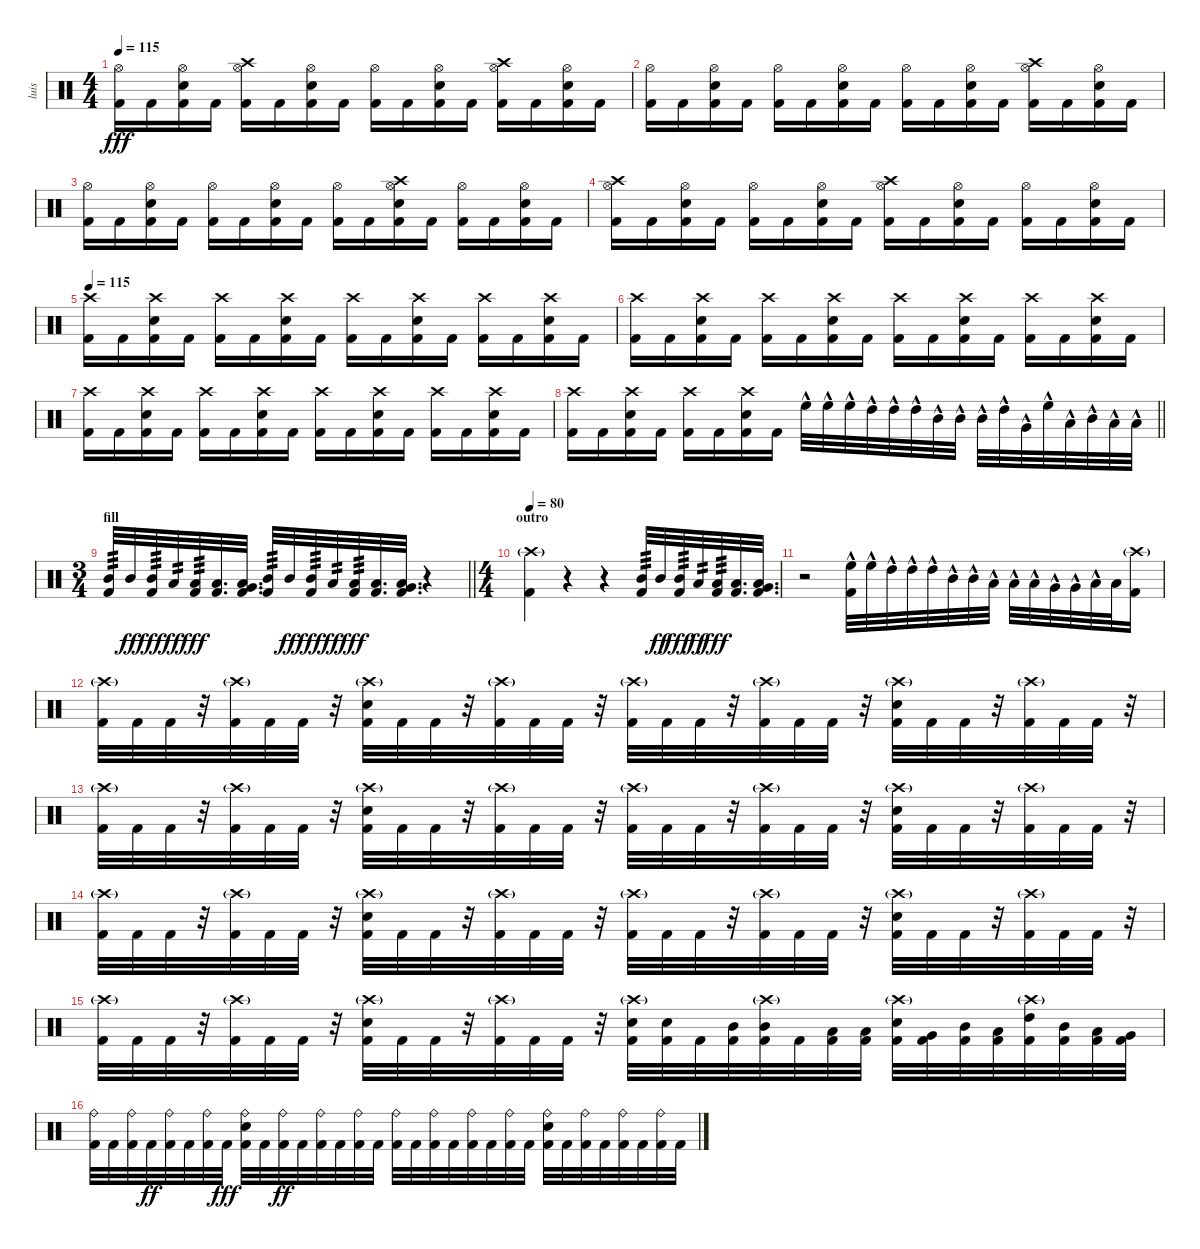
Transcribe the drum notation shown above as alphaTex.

\track ("luis" "luis") {instrument percussion}
\staff {score}
\articulation defaults
\ts (4 4)
\tempo 115
\clef neutral
\ks c
("Hi-Hat (open)" "Kick (hit) 2").16{dy fff} "Kick (hit) 2".16 ("Hi-Hat (open)" "Electric Snare (hit)" "Kick (hit) 2").16 "Kick (hit) 2".16 ("Crash high (hit)" "Hi-Hat (open)" "Kick (hit) 2").16 "Kick (hit) 2".16 ("Hi-Hat (open)" "Electric Snare (hit)" "Kick (hit) 2").16 "Kick (hit) 2".16 ("Hi-Hat (open)" "Kick (hit) 2").16 "Kick (hit) 2".16 ("Hi-Hat (open)" "Electric Snare (hit)" "Kick (hit) 2").16 "Kick (hit) 2".16 ("Crash high (hit)" "Hi-Hat (open)" "Kick (hit) 2").16 "Kick (hit) 2".16 ("Hi-Hat (open)" "Electric Snare (hit)" "Kick (hit) 2").16 "Kick (hit) 2".16 |
("Hi-Hat (open)" "Kick (hit) 2").16 "Kick (hit) 2".16 ("Hi-Hat (open)" "Electric Snare (hit)" "Kick (hit) 2").16 "Kick (hit) 2".16 ("Hi-Hat (open)" "Kick (hit) 2").16 "Kick (hit) 2".16 ("Hi-Hat (open)" "Electric Snare (hit)" "Kick (hit) 2").16 "Kick (hit) 2".16 ("Hi-Hat (open)" "Kick (hit) 2").16 "Kick (hit) 2".16 ("Hi-Hat (open)" "Electric Snare (hit)" "Kick (hit) 2").16 "Kick (hit) 2".16 ("Crash high (hit)" "Hi-Hat (open)" "Kick (hit) 2").16 "Kick (hit) 2".16 ("Hi-Hat (open)" "Electric Snare (hit)" "Kick (hit) 2").16 "Kick (hit) 2".16 |
("Hi-Hat (open)" "Kick (hit) 2").16 "Kick (hit) 2".16 ("Hi-Hat (open)" "Electric Snare (hit)" "Kick (hit) 2").16 "Kick (hit) 2".16 ("Hi-Hat (open)" "Kick (hit) 2").16 "Kick (hit) 2".16 ("Hi-Hat (open)" "Electric Snare (hit)" "Kick (hit) 2").16 "Kick (hit) 2".16 ("Hi-Hat (open)" "Kick (hit) 2").16 "Kick (hit) 2".16 ("Crash high (hit)" "Hi-Hat (open)" "Electric Snare (hit)" "Kick (hit) 2").16 "Kick (hit) 2".16 ("Hi-Hat (open)" "Kick (hit) 2").16 "Kick (hit) 2".16 ("Hi-Hat (open)" "Electric Snare (hit)" "Kick (hit) 2").16 "Kick (hit) 2".16 |
("Crash high (hit)" "Hi-Hat (open)" "Kick (hit) 2").16 "Kick (hit) 2".16 ("Hi-Hat (open)" "Electric Snare (hit)" "Kick (hit) 2").16 "Kick (hit) 2".16 ("Hi-Hat (open)" "Kick (hit) 2").16 "Kick (hit) 2".16 ("Hi-Hat (open)" "Electric Snare (hit)" "Kick (hit) 2").16 "Kick (hit) 2".16 ("Crash high (hit)" "Hi-Hat (open)" "Kick (hit) 2").16 "Kick (hit) 2".16 ("Hi-Hat (open)" "Electric Snare (hit)" "Kick (hit) 2").16 "Kick (hit) 2".16 ("Hi-Hat (open)" "Kick (hit) 2").16 "Kick (hit) 2".16 ("Hi-Hat (open)" "Electric Snare (hit)" "Kick (hit) 2").16 "Kick (hit) 2".16 |
\tempo 115
("Crash high (hit)" "Kick (hit) 2").16 "Kick (hit) 2".16 ("Crash high (hit)" "Electric Snare (hit)" "Kick (hit) 2").16 "Kick (hit) 2".16 ("Crash high (hit)" "Kick (hit) 2").16 "Kick (hit) 2".16 ("Crash high (hit)" "Electric Snare (hit)" "Kick (hit) 2").16 "Kick (hit) 2".16 ("Crash high (hit)" "Kick (hit) 2").16 "Kick (hit) 2".16 ("Crash high (hit)" "Electric Snare (hit)" "Kick (hit) 2").16 "Kick (hit) 2".16 ("Crash high (hit)" "Kick (hit) 2").16 "Kick (hit) 2".16 ("Crash high (hit)" "Electric Snare (hit)" "Kick (hit) 2").16 "Kick (hit) 2".16 |
("Crash high (hit)" "Kick (hit) 2").16 "Kick (hit) 2".16 ("Crash high (hit)" "Electric Snare (hit)" "Kick (hit) 2").16 "Kick (hit) 2".16 ("Crash high (hit)" "Kick (hit) 2").16 "Kick (hit) 2".16 ("Crash high (hit)" "Electric Snare (hit)" "Kick (hit) 2").16 "Kick (hit) 2".16 ("Crash high (hit)" "Kick (hit) 2").16 "Kick (hit) 2".16 ("Crash high (hit)" "Electric Snare (hit)" "Kick (hit) 2").16 "Kick (hit) 2".16 ("Crash high (hit)" "Kick (hit) 2").16 "Kick (hit) 2".16 ("Crash high (hit)" "Electric Snare (hit)" "Kick (hit) 2").16 "Kick (hit) 2".16 |
("Crash high (hit)" "Kick (hit) 2").16 "Kick (hit) 2".16 ("Crash high (hit)" "Electric Snare (hit)" "Kick (hit) 2").16 "Kick (hit) 2".16 ("Crash high (hit)" "Kick (hit) 2").16 "Kick (hit) 2".16 ("Crash high (hit)" "Electric Snare (hit)" "Kick (hit) 2").16 "Kick (hit) 2".16 ("Crash high (hit)" "Kick (hit) 2").16 "Kick (hit) 2".16 ("Crash high (hit)" "Electric Snare (hit)" "Kick (hit) 2").16 "Kick (hit) 2".16 ("Crash high (hit)" "Kick (hit) 2").16 "Kick (hit) 2".16 ("Crash high (hit)" "Electric Snare (hit)" "Kick (hit) 2").16 "Kick (hit) 2".16 |
\barLineRight lightlight
("Crash high (hit)" "Kick (hit) 2").16 "Kick (hit) 2".16 ("Crash high (hit)" "Electric Snare (hit)" "Kick (hit) 2").16 "Kick (hit) 2".16 ("Crash high (hit)" "Kick (hit) 2").16 "Kick (hit) 2".16 ("Crash high (hit)" "Electric Snare (hit)" "Kick (hit) 2").16 "Kick (hit) 2".16 "High Floor Tom (hit)"{hac}.32 "High Floor Tom (hit)"{hac}.32 "High Floor Tom (hit)"{hac}.32 "High Tom (hit)"{hac}.32 "High Tom (hit)"{hac}.32 "High Tom (hit)"{hac}.32 "Mid Tom (hit)"{hac}.32 "Mid Tom (hit)"{hac}.32 "Mid Tom (hit)"{hac}.32 "High Tom (hit)"{hac}.32 "Very Low Tom (hit)"{hac}.32 "High Floor Tom (hit)"{hac}.32 "Low Tom (hit)"{hac}.32 "Mid Tom (hit)"{hac}.32 "Low Floor Tom (hit)"{hac}.32 "Low Floor Tom (hit)"{hac}.32 |
\ts (3 4)
\section ("" "fill")
\barLineRight lightlight
("Mid Tom (hit)" "Kick (hit) 2").32{tp 3} "Mid Tom (hit)".32{dy ff} ("Mid Tom (hit)" "Kick (hit) 2").32{tp 3 dy fff} "Low Tom (hit)".32{tp 2 dy ff} ("Low Tom (hit)" "Kick (hit) 2").32{tp 3 dy fff} ("Low Floor Tom (hit)" "Kick (hit) 2").32{d} ("Low Floor Tom (hit)" "Very Low Tom (hit)" "Kick (hit) 2").32{d} ("Mid Tom (hit)" "Kick (hit) 2").32{tp 3} "Mid Tom (hit)".32{dy ff} ("Mid Tom (hit)" "Kick (hit) 2").32{tp 3 dy fff} "Low Tom (hit)".32{tp 2 dy ff} ("Low Tom (hit)" "Kick (hit) 2").32{tp 3 dy fff} ("Low Floor Tom (hit)" "Kick (hit) 2").32{d} ("Low Floor Tom (hit)" "Very Low Tom (hit)" "Kick (hit) 2").32{d} r.4 |
\ts (4 4)
\section ("" "outro")
\tempo 80
("Crash high (hit)"{g} "Kick (hit) 2").4 r.4 r.4 ("Mid Tom (hit)" "Kick (hit) 2").32{tp 3} "Mid Tom (hit)".32{dy ff} ("Mid Tom (hit)" "Kick (hit) 2").32{tp 3 dy fff} "Low Tom (hit)".32{tp 2 dy ff} ("Low Tom (hit)" "Kick (hit) 2").32{tp 3 dy fff} ("Low Floor Tom (hit)" "Kick (hit) 2").32{d} ("Low Floor Tom (hit)" "Very Low Tom (hit)" "Kick (hit) 2").32{d} |
r.2 ("High Floor Tom (hit)"{hac} "Kick (hit) 2").32 "High Floor Tom (hit)"{hac}.32 "High Tom (hit)"{hac}.32 "High Tom (hit)"{hac}.32 "High Tom (hit)"{hac}.32 "Mid Tom (hit)"{hac}.32 "Mid Tom (hit)"{hac}.32 "Low Tom (hit)"{hac}.32 "Low Tom (hit)"{hac}.32 "Low Tom (hit)"{hac}.32 "Very Low Tom (hit)"{hac}.32 "Very Low Tom (hit)"{hac}.32 "Low Floor Tom (hit)"{hac}.32 "Low Floor Tom (hit)".32 ("Crash high (hit)"{g} "Kick (hit) 2").16 |
("Crash high (hit)"{g} "Kick (hit) 2").32 "Kick (hit) 2".32 "Kick (hit) 2".32 r.32 ("Crash high (hit)"{g} "Kick (hit) 2").32 "Kick (hit) 2".32 "Kick (hit) 2".32 r.32 ("Crash high (hit)"{g} "Electric Snare (hit)" "Kick (hit) 2").32 "Kick (hit) 2".32 "Kick (hit) 2".32 r.32 ("Crash high (hit)"{g} "Kick (hit) 2").32 "Kick (hit) 2".32 "Kick (hit) 2".32 r.32 ("Crash high (hit)"{g} "Kick (hit) 2").32 "Kick (hit) 2".32 "Kick (hit) 2".32 r.32 ("Crash high (hit)"{g} "Kick (hit) 2").32 "Kick (hit) 2".32 "Kick (hit) 2".32 r.32 ("Crash high (hit)"{g} "Electric Snare (hit)" "Kick (hit) 2").32 "Kick (hit) 2".32 "Kick (hit) 2".32 r.32 ("Crash high (hit)"{g} "Kick (hit) 2").32 "Kick (hit) 2".32 "Kick (hit) 2".32 r.32 |
("Crash high (hit)"{g} "Kick (hit) 2").32 "Kick (hit) 2".32 "Kick (hit) 2".32 r.32 ("Crash high (hit)"{g} "Kick (hit) 2").32 "Kick (hit) 2".32 "Kick (hit) 2".32 r.32 ("Crash high (hit)"{g} "Electric Snare (hit)" "Kick (hit) 2").32 "Kick (hit) 2".32 "Kick (hit) 2".32 r.32 ("Crash high (hit)"{g} "Kick (hit) 2").32 "Kick (hit) 2".32 "Kick (hit) 2".32 r.32 ("Crash high (hit)"{g} "Kick (hit) 2").32 "Kick (hit) 2".32 "Kick (hit) 2".32 r.32 ("Crash high (hit)"{g} "Kick (hit) 2").32 "Kick (hit) 2".32 "Kick (hit) 2".32 r.32 ("Crash high (hit)"{g} "Electric Snare (hit)" "Kick (hit) 2").32 "Kick (hit) 2".32 "Kick (hit) 2".32 r.32 ("Crash high (hit)"{g} "Kick (hit) 2").32 "Kick (hit) 2".32 "Kick (hit) 2".32 r.32 |
("Crash high (hit)"{g} "Kick (hit) 2").32 "Kick (hit) 2".32 "Kick (hit) 2".32 r.32 ("Crash high (hit)"{g} "Kick (hit) 2").32 "Kick (hit) 2".32 "Kick (hit) 2".32 r.32 ("Crash high (hit)"{g} "Electric Snare (hit)" "Kick (hit) 2").32 "Kick (hit) 2".32 "Kick (hit) 2".32 r.32 ("Crash high (hit)"{g} "Kick (hit) 2").32 "Kick (hit) 2".32 "Kick (hit) 2".32 r.32 ("Crash high (hit)"{g} "Kick (hit) 2").32 "Kick (hit) 2".32 "Kick (hit) 2".32 r.32 ("Crash high (hit)"{g} "Kick (hit) 2").32 "Kick (hit) 2".32 "Kick (hit) 2".32 r.32 ("Crash high (hit)"{g} "Electric Snare (hit)" "Kick (hit) 2").32 "Kick (hit) 2".32 "Kick (hit) 2".32 r.32 ("Crash high (hit)"{g} "Kick (hit) 2").32 "Kick (hit) 2".32 "Kick (hit) 2".32 r.32 |
("Crash high (hit)"{g} "Kick (hit) 2").32 "Kick (hit) 2".32 "Kick (hit) 2".32 r.32 ("Crash high (hit)"{g} "Kick (hit) 2").32 "Kick (hit) 2".32 "Kick (hit) 2".32 r.32 ("Crash high (hit)"{g} "Electric Snare (hit)" "Kick (hit) 2").32 "Kick (hit) 2".32 "Kick (hit) 2".32 r.32 ("Crash high (hit)"{g} "Kick (hit) 2").32 "Kick (hit) 2".32 "Kick (hit) 2".32 r.32 ("Crash high (hit)"{g} "Electric Snare (hit)" "Kick (hit) 2").32 ("Electric Snare (hit)" "Kick (hit) 2").32 "Kick (hit) 2".32 ("Mid Tom (hit)" "Kick (hit) 2").32 ("Crash high (hit)"{g} "Mid Tom (hit)" "Kick (hit) 2").32 "Kick (hit) 2".32 ("Low Tom (hit)" "Kick (hit) 2").32 ("Low Tom (hit)" "Kick (hit) 2").32 ("Crash high (hit)"{g} "Electric Snare (hit)" "Kick (hit) 2").32 ("Very Low Tom (hit)" "Kick (hit) 2").32 ("Mid Tom (hit)" "Kick (hit) 2").32 ("Low Tom (hit)" "Kick (hit) 2").32 ("Crash high (hit)"{g} "High Tom (hit)" "Kick (hit) 2").32 ("Mid Tom (hit)" "Kick (hit) 2").32 ("Low Floor Tom (hit)" "Kick (hit) 2").32 ("Very Low Tom (hit)" "Kick (hit) 2").32 |
("Ride (bell)" "Kick (hit) 2").32 "Kick (hit) 2".32 ("Ride (bell)" "Kick (hit) 2").32 "Kick (hit) 2".32{dy ff} ("Ride (bell)" "Kick (hit) 2").32 "Kick (hit) 2".32 ("Ride (bell)" "Kick (hit) 2").32 "Kick (hit) 2".32{dy fff} ("Ride (bell)" "Electric Snare (hit)" "Kick (hit) 2").32 "Kick (hit) 2".32 ("Ride (bell)" "Kick (hit) 2").32{dy ff} "Kick (hit) 2".32 ("Ride (bell)" "Kick (hit) 2").32 "Kick (hit) 2".32 ("Ride (bell)" "Kick (hit) 2").32 "Kick (hit) 2".32 ("Ride (bell)" "Kick (hit) 2").32 "Kick (hit) 2".32 ("Ride (bell)" "Kick (hit) 2").32 "Kick (hit) 2".32 ("Ride (bell)" "Kick (hit) 2").32 "Kick (hit) 2".32 ("Ride (bell)" "Kick (hit) 2").32 "Kick (hit) 2".32 ("Ride (bell)" "Electric Snare (hit)" "Kick (hit) 2").32 "Kick (hit) 2".32 ("Ride (bell)" "Kick (hit) 2").32 "Kick (hit) 2".32 ("Ride (bell)" "Kick (hit) 2").32 "Kick (hit) 2".32 ("Ride (bell)" "Kick (hit) 2").32 "Kick (hit) 2".32
